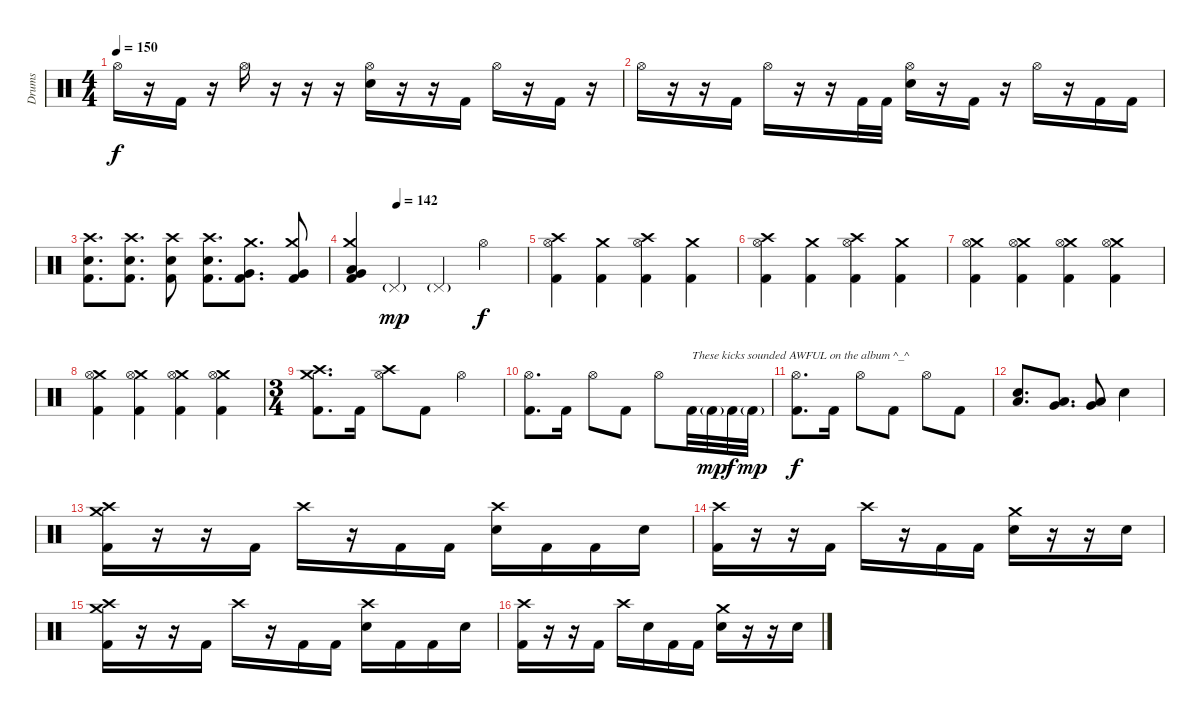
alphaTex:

\track ("Drums" "Drums") {instrument percussion}
\staff {score}
\articulation defaults
\ts (4 4)
\tempo 150
\clef neutral
\ks c "Hi-Hat (open)".16{dy f}
r.16 "Kick (hit) 2".16 r.16 "Hi-Hat (open)".16 r.16 r.16 r.16 ("Hi-Hat (open)" "Snare (hit) 2").16 r.16 r.16 "Kick (hit) 2".16 "Hi-Hat (open)".16 r.16 "Kick (hit) 2".16 r.16 |
"Hi-Hat (open)".16 r.16 r.16 "Kick (hit) 2".16 "Hi-Hat (open)".16 r.16 r.16 "Kick (hit) 2".32 "Kick (hit) 2".32 ("Hi-Hat (open)" "Snare (hit) 2").16 r.16 "Kick (hit) 2".16 r.16 "Hi-Hat (open)".16 r.16 "Kick (hit) 2".16 "Kick (hit) 2".16 |
("Crash high (hit)" "Snare (hit) 2" "Kick (hit) 2").8{d} ("Crash high (hit)" "Snare (hit) 2" "Kick (hit) 2").8{d} ("Crash high (hit)" "Snare (hit) 2" "Kick (hit) 2").8 ("Crash high (hit)" "Snare (hit) 2" "Kick (hit) 2").8{d} ("Crash medium (hit)" "Very Low Tom (hit)" "Kick (hit) 2").8{d} ("Crash medium (hit)" "Very Low Tom (hit)" "Kick (hit) 2").8 |
\tempo (142 0.25)
("Crash medium (hit)" "Low Tom (hit)" "Very Low Tom (hit)" "Kick (hit) 2").4 "Pedal Hi-Hat (hit)"{g}.4{dy mp} "Pedal Hi-Hat (hit)"{g}.4 "Hi-Hat (open)".4{dy f} |
("Hi-Hat (open)" "Crash high (hit)" "Kick (hit) 2").4 ("Crash medium (hit)" "Kick (hit) 2").4 ("Hi-Hat (open)" "Crash high (hit)" "Kick (hit) 2").4 ("Crash medium (hit)" "Kick (hit) 2").4 |
("Hi-Hat (open)" "Crash high (hit)" "Kick (hit) 2").4 ("Crash medium (hit)" "Kick (hit) 2").4 ("Hi-Hat (open)" "Crash high (hit)" "Kick (hit) 2").4 ("Crash medium (hit)" "Kick (hit) 2").4 |
("Crash medium (hit)" "Hi-Hat (open)" "Kick (hit) 2").4 ("Crash medium (hit)" "Hi-Hat (open)" "Kick (hit) 2").4 ("Crash medium (hit)" "Hi-Hat (open)" "Kick (hit) 2").4 ("Crash medium (hit)" "Hi-Hat (open)" "Kick (hit) 2").4 |
("Crash medium (hit)" "Hi-Hat (open)" "Kick (hit) 2").4 ("Crash medium (hit)" "Hi-Hat (open)" "Kick (hit) 2").4 ("Crash medium (hit)" "Hi-Hat (open)" "Kick (hit) 2").4 ("Crash medium (hit)" "Hi-Hat (open)" "Kick (hit) 2").4 |
\ts (3 4)
("Crash medium (hit)" "Crash high (hit)" "Kick (hit) 2").8{d} "Kick (hit) 2".16 ("Crash high (hit)" "Hi-Hat (open)").8 "Kick (hit) 2".8 "Hi-Hat (open)".4 |
("Hi-Hat (open)" "Kick (hit) 2").8{d} "Kick (hit) 2".16 "Hi-Hat (open)".8 "Kick (hit) 2".8 "Hi-Hat (open)".8 "Kick (hit) 2".32{txt "These kicks sounded AWFUL on the album ^_^"} "Kick (hit) 2"{g}.32{dy mp} "Kick (hit) 2".32{dy f} "Kick (hit) 2"{g}.32{dy mp} |
("Hi-Hat (open)" "Kick (hit) 2").8{d dy f} "Kick (hit) 2".16 "Hi-Hat (open)".8 "Kick (hit) 2".8 "Hi-Hat (open)".8 "Kick (hit) 2".8 |
("Low Tom (hit)" "Snare (hit) 2").8{d} ("Very Low Tom (hit)" "Low Tom (hit)").8{d} ("Low Floor Tom (hit)" "Very Low Tom (hit)").8 "Snare (hit) 2".4 |
("Crash medium (hit)" "Crash high (hit)" "Kick (hit) 2").16 r.16 r.16 "Kick (hit) 2".16 "Crash high (hit)".16 r.16 "Kick (hit) 2".16 "Kick (hit) 2".16 ("Crash high (hit)" "Snare (hit) 2").16 "Kick (hit) 2".16 "Kick (hit) 2".16 "Snare (hit) 2".16 |
("Crash high (hit)" "Kick (hit) 2").16 r.16 r.16 "Kick (hit) 2".16 "Crash high (hit)".16 r.16 "Kick (hit) 2".16 "Kick (hit) 2".16 ("Crash medium (hit)" "Snare (hit) 2").16 r.16 r.16 "Snare (hit) 2".16 |
("Crash high (hit)" "Crash medium (hit)" "Kick (hit) 2").16 r.16 r.16 "Kick (hit) 2".16 "Crash high (hit)".16 r.16 "Kick (hit) 2".16 "Kick (hit) 2".16 ("Crash high (hit)" "Snare (hit) 2").16 "Kick (hit) 2".16 "Kick (hit) 2".16 "Snare (hit) 2".16 |
("Crash high (hit)" "Kick (hit) 2").16 r.16 r.16 "Kick (hit) 2".16 "Crash high (hit)".16 "Snare (hit) 2".16 "Kick (hit) 2".16 "Kick (hit) 2".16 ("Crash medium (hit)" "Snare (hit) 2").16 r.16 r.16 "Snare (hit) 2".16
